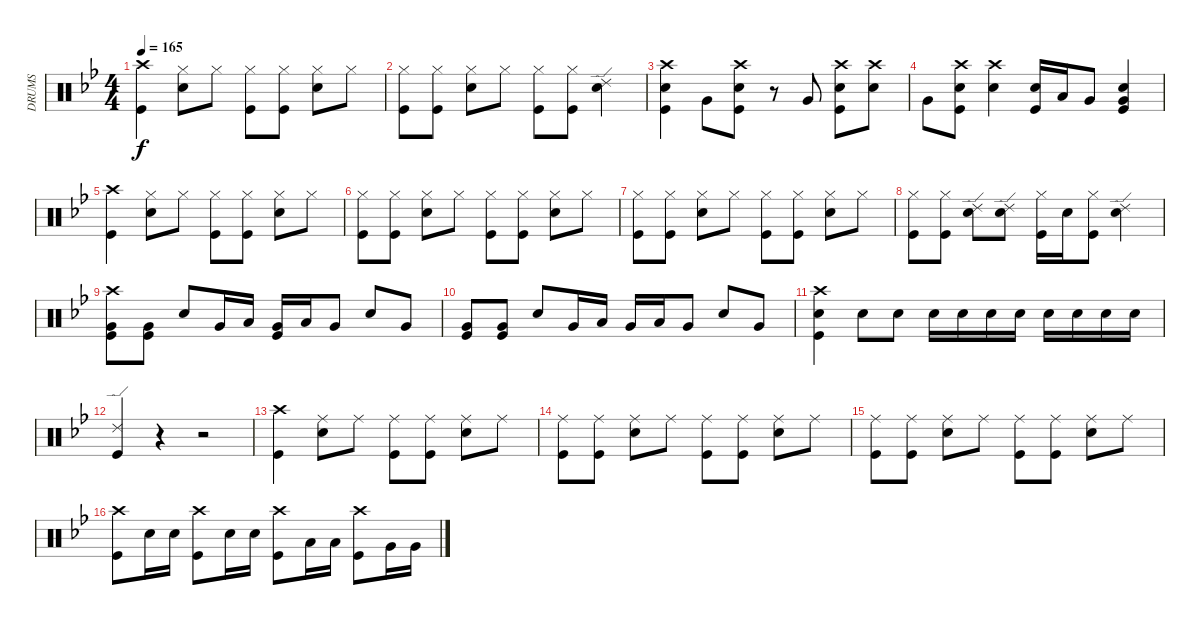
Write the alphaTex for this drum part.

\track ("DRUMS" "DRUMS") {instrument percussion}
\staff {score}
\articulation defaults
\ts (4 4)
\tempo 165
\clef neutral
\ks bb
("Crash high (hit)" "Kick (hit)").4{dy f} ("Hi-Hat (closed)" "Electric Snare (hit)").8 "Hi-Hat (closed)".8 ("Hi-Hat (closed)" "Kick (hit)").8 ("Hi-Hat (closed)" "Kick (hit)").8 ("Hi-Hat (closed)" "Electric Snare (hit)").8 "Hi-Hat (closed)".8 |
("Hi-Hat (closed)" "Kick (hit)").8 ("Hi-Hat (closed)" "Kick (hit)").8 ("Hi-Hat (closed)" "Electric Snare (hit)").8 "Hi-Hat (closed)".8 ("Hi-Hat (closed)" "Kick (hit)").8 ("Hi-Hat (closed)" "Kick (hit)").8 ("Ride (edge) 2" "Electric Snare (hit)").4 |
("Crash high (hit)" "Electric Snare (hit)" "Kick (hit)").4 "Very Low Tom (hit)".8 ("Crash high (hit)" "Electric Snare (hit)" "Kick (hit)").8 r.8 "Very Low Tom (hit)".8 ("Crash high (hit)" "Electric Snare (hit)" "Kick (hit)").8 ("Crash high (hit)" "Electric Snare (hit)").8 |
"Very Low Tom (hit)".8 ("Crash high (hit)" "Electric Snare (hit)" "Kick (hit)").8 ("Crash high (hit)" "Electric Snare (hit)").4 ("Electric Snare (hit)" "Kick (hit)").16 "Low Tom (hit)".16 "Very Low Tom (hit)".8 ("Electric Snare (hit)" "Very Low Tom (hit)" "Kick (hit)").4 |
("Crash high (hit)" "Kick (hit)").4 ("Hi-Hat (closed)" "Electric Snare (hit)").8 "Hi-Hat (closed)".8 ("Hi-Hat (closed)" "Kick (hit)").8 ("Hi-Hat (closed)" "Kick (hit)").8 ("Hi-Hat (closed)" "Electric Snare (hit)").8 "Hi-Hat (closed)".8 |
("Hi-Hat (closed)" "Kick (hit)").8 ("Hi-Hat (closed)" "Kick (hit)").8 ("Hi-Hat (closed)" "Electric Snare (hit)").8 "Hi-Hat (closed)".8 ("Hi-Hat (closed)" "Kick (hit)").8 ("Hi-Hat (closed)" "Kick (hit)").8 ("Hi-Hat (closed)" "Electric Snare (hit)").8 "Hi-Hat (closed)".8 |
("Hi-Hat (closed)" "Kick (hit)").8 ("Hi-Hat (closed)" "Kick (hit)").8 ("Hi-Hat (closed)" "Electric Snare (hit)").8 "Hi-Hat (closed)".8 ("Hi-Hat (closed)" "Kick (hit)").8 ("Hi-Hat (closed)" "Kick (hit)").8 ("Hi-Hat (closed)" "Electric Snare (hit)").8 "Hi-Hat (closed)".8 |
("Hi-Hat (closed)" "Kick (hit)").8 ("Hi-Hat (closed)" "Kick (hit)").8 ("Ride (edge) 2" "Electric Snare (hit)").8 ("Ride (edge) 2" "Electric Snare (hit)").8 ("Hi-Hat (closed)" "Kick (hit)").16 "Electric Snare (hit)".16 ("Hi-Hat (closed)" "Kick (hit)").8 ("Ride (edge) 2" "Electric Snare (hit)").4 |
("Crash high (hit)" "Very Low Tom (hit)" "Kick (hit)").8 ("Very Low Tom (hit)" "Kick (hit)").8 "Electric Snare (hit)".8 "Very Low Tom (hit)".16 "Low Tom (hit)".16 ("Very Low Tom (hit)" "Kick (hit)").16 "Low Tom (hit)".16 "Very Low Tom (hit)".8 "Electric Snare (hit)".8 "Very Low Tom (hit)".8 |
("Very Low Tom (hit)" "Kick (hit)").8 ("Very Low Tom (hit)" "Kick (hit)").8 "Electric Snare (hit)".8 "Very Low Tom (hit)".16 "Low Tom (hit)".16 "Very Low Tom (hit)".16 "Low Tom (hit)".16 "Very Low Tom (hit)".8 "Electric Snare (hit)".8 "Very Low Tom (hit)".8 |
("Crash high (hit)" "Electric Snare (hit)" "Kick (hit)").4 "Electric Snare (hit)".8 "Electric Snare (hit)".8 "Electric Snare (hit)".16 "Electric Snare (hit)".16 "Electric Snare (hit)".16 "Electric Snare (hit)".16 "Electric Snare (hit)".16 "Electric Snare (hit)".16 "Electric Snare (hit)".16 "Electric Snare (hit)".16 |
("Ride (edge) 2" "Kick (hit)").4 r.4 r.2 |
("Crash high (hit)" "Kick (hit)").4 ("Ride (middle)" "Electric Snare (hit)").8 "Ride (middle)".8 ("Ride (middle)" "Kick (hit)").8 ("Ride (middle)" "Kick (hit)").8 ("Ride (middle)" "Electric Snare (hit)").8 "Ride (middle)".8 |
("Ride (middle)" "Kick (hit)").8 ("Ride (middle)" "Kick (hit)").8 ("Ride (middle)" "Electric Snare (hit)").8 "Ride (middle)".8 ("Ride (middle)" "Kick (hit)").8 ("Ride (middle)" "Kick (hit)").8 ("Ride (middle)" "Electric Snare (hit)").8 "Ride (middle)".8 |
("Ride (middle)" "Kick (hit)").8 ("Ride (middle)" "Kick (hit)").8 ("Ride (middle)" "Electric Snare (hit)").8 "Ride (middle)".8 ("Ride (middle)" "Kick (hit)").8 ("Ride (middle)" "Kick (hit)").8 ("Ride (middle)" "Electric Snare (hit)").8 "Ride (middle)".8 |
("Crash high (hit)" "Kick (hit)").8 "Electric Snare (hit)".16 "Electric Snare (hit)".16 ("Crash high (hit)" "Kick (hit)").8 "Electric Snare (hit)".16 "Electric Snare (hit)".16 ("Crash high (hit)" "Kick (hit)").8 "Low Tom (hit)".16 "Low Tom (hit)".16 ("Crash high (hit)" "Kick (hit)").8 "Very Low Tom (hit)".16 "Very Low Tom (hit)".16
